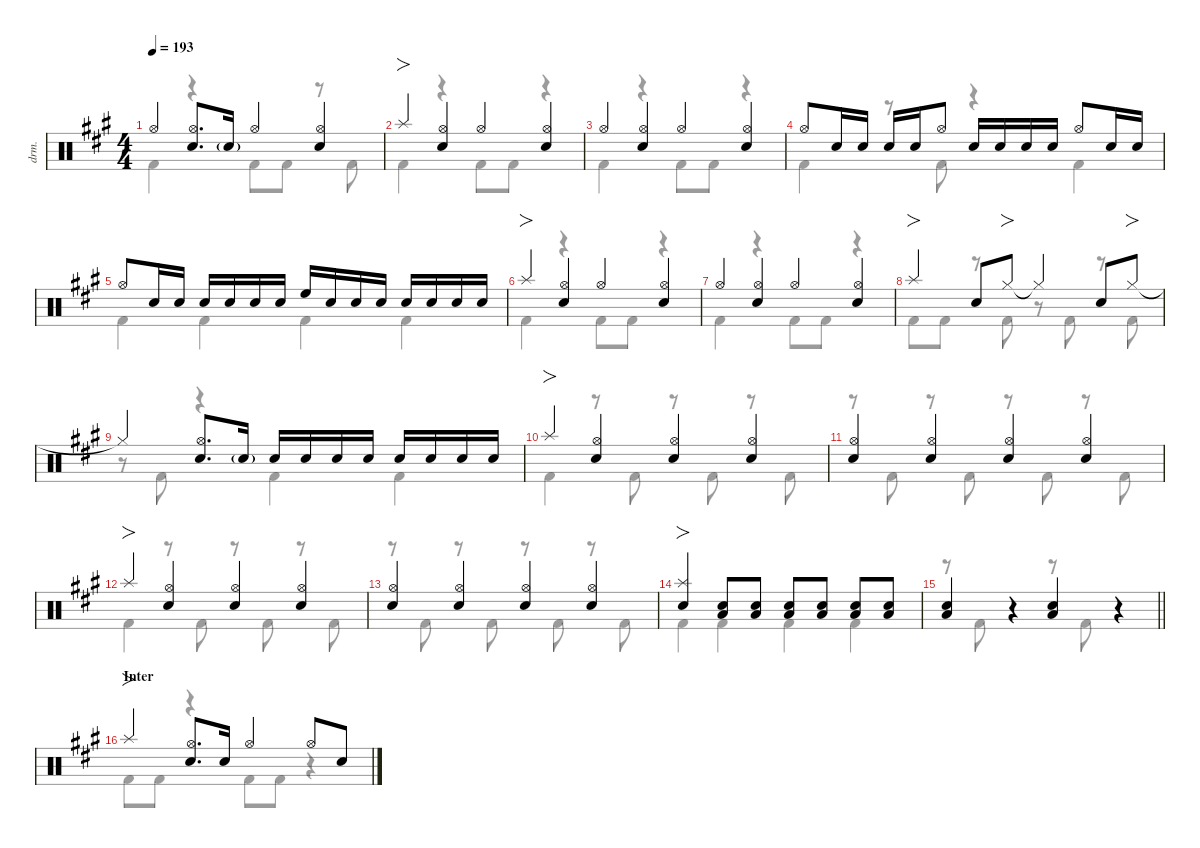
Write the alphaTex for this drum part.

\defaultSystemsLayout 4
\hideDynamics
\bracketExtendMode nobrackets
\otherSystemsTrackNameOrientation horizontal
\track ("伊地知虹夏" "drm.") {instrument percussion}
\staff {score}
\articulation defaults
\voice
\ts (4 4)
\tempo 193
\clef neutral
\ks a "Hi-Hat (open)"{acc forcenatural}.4{dy mf beam Up}
("Hi-Hat (open)"{acc forcenatural} "Snare (hit) 2"{acc forcenatural}).8{d beam Up} "Snare (hit) 2"{g acc forcenatural}.16{beam Up} "Hi-Hat (open)"{acc forcenatural}.4{beam Up} ("Snare (hit) 2"{acc forcenatural} "Hi-Hat (open)"{acc forcenatural}).4{beam Up} |
"Splash (hit)"{acc forcenatural}.4{fo beam Up} ("Hi-Hat (open)"{acc forcenatural} "Snare (hit) 2"{acc forcenatural}).4{beam Up} "Hi-Hat (open)"{acc forcenatural}.4{beam Up} ("Hi-Hat (open)"{acc forcenatural} "Snare (hit) 2"{acc forcenatural}).4{beam Up} |
"Hi-Hat (open)"{acc forcenatural}.4{beam Up} ("Hi-Hat (open)"{acc forcenatural} "Snare (hit) 2"{acc forcenatural}).4{beam Up} "Hi-Hat (open)"{acc forcenatural}.4{beam Up} ("Hi-Hat (open)"{acc forcenatural} "Snare (hit) 2"{acc forcenatural}).4{beam Up} |
"Hi-Hat (open)"{acc forcenatural}.8{beam Up} "Snare (hit) 2"{acc forcenatural}.16{beam Up} "Snare (hit) 2"{acc forcenatural}.16{beam Up} "Snare (hit) 2"{acc forcenatural}.16{beam Up} "Snare (hit) 2"{acc forcenatural}.16{beam Up} "Hi-Hat (open)"{acc forcenatural}.8{beam Up} "Snare (hit) 2"{acc forcenatural}.16{beam Up} "Snare (hit) 2"{acc forcenatural}.16{beam Up} "Snare (hit) 2"{acc forcenatural}.16{beam Up} "Snare (hit) 2"{acc forcenatural}.16{beam Up} "Hi-Hat (open)"{acc forcenatural}.8{beam Up} "Snare (hit) 2"{acc forcenatural}.16{beam Up} "Snare (hit) 2"{acc forcenatural}.16{beam Up} |
"Hi-Hat (open)"{acc forcenatural}.8{beam Up} "Snare (hit) 2"{acc forcenatural}.16{beam Up} "Snare (hit) 2"{acc forcenatural}.16{beam Up} "Snare (hit) 2"{acc forcenatural}.16{beam Up} "Snare (hit) 2"{acc forcenatural}.16{beam Up} "Snare (hit) 2"{acc forcenatural}.16{beam Up} "Snare (hit) 2"{acc forcenatural}.16{beam Up} "High Floor Tom (hit)"{acc forcenatural}.16{beam Up} "Snare (hit) 2"{acc forcenatural}.16{beam Up} "Snare (hit) 2"{acc forcenatural}.16{beam Up} "Snare (hit) 2"{acc forcenatural}.16{beam Up} "Snare (hit) 2"{acc forcenatural}.16{beam Up} "Snare (hit) 2"{acc forcenatural}.16{beam Up} "Snare (hit) 2"{acc forcenatural}.16{beam Up} "Snare (hit) 2"{acc forcenatural}.16{beam Up} |
"Splash (hit)"{acc forcenatural}.4{fo beam Up} ("Hi-Hat (open)"{acc forcenatural} "Snare (hit) 2"{acc forcenatural}).4{beam Up} "Hi-Hat (open)"{acc forcenatural}.4{beam Up} ("Hi-Hat (open)"{acc forcenatural} "Snare (hit) 2"{acc forcenatural}).4{beam Up} |
"Hi-Hat (open)"{acc forcenatural}.4{beam Up} ("Hi-Hat (open)"{acc forcenatural} "Snare (hit) 2"{acc forcenatural}).4{beam Up} "Hi-Hat (open)"{acc forcenatural}.4{beam Up} ("Hi-Hat (open)"{acc forcenatural} "Snare (hit) 2"{acc forcenatural}).4{beam Up} |
"Splash (hit)"{acc forcenatural}.4{fo beam Up} "Snare (hit) 2"{acc forcenatural}.8{beam Up} "Hi-Hat (closed)"{acc forcenatural}.8{fo beam Up} "Hi-Hat (closed)"{t acc forcenatural}.4{beam Up} "Snare (hit) 2"{acc forcenatural}.8{beam Up} "Hi-Hat (closed)"{acc forcenatural}.8{fo beam Up} |
"Hi-Hat (closed)"{t acc forcenatural}.4{beam Up} ("Hi-Hat (open)"{acc forcenatural} "Snare (hit) 2"{acc forcenatural}).8{d beam Up} "Snare (hit) 2"{g acc forcenatural}.16{beam Up} "Snare (hit) 2"{acc forcenatural}.16{beam Up} "Snare (hit) 2"{acc forcenatural}.16{beam Up} "Snare (hit) 2"{acc forcenatural}.16{beam Up} "Snare (hit) 2"{acc forcenatural}.16{beam Up} "Snare (hit) 2"{acc forcenatural}.16{beam Up} "Snare (hit) 2"{acc forcenatural}.16{beam Up} "Snare (hit) 2"{acc forcenatural}.16{beam Up} "Snare (hit) 2"{acc forcenatural}.16{beam Up} |
"Splash (hit)"{acc forcenatural}.4{fo beam Up} ("Hi-Hat (open)"{acc forcenatural} "Snare (hit) 2"{acc forcenatural}).4{beam Up} ("Hi-Hat (open)"{acc forcenatural} "Snare (hit) 2"{acc forcenatural}).4{beam Up} ("Hi-Hat (open)"{acc forcenatural} "Snare (hit) 2"{acc forcenatural}).4{beam Up} |
("Hi-Hat (open)"{acc forcenatural} "Snare (hit) 2"{acc forcenatural}).4{beam Up} ("Hi-Hat (open)"{acc forcenatural} "Snare (hit) 2"{acc forcenatural}).4{beam Up} ("Hi-Hat (open)"{acc forcenatural} "Snare (hit) 2"{acc forcenatural}).4{beam Up} ("Hi-Hat (open)"{acc forcenatural} "Snare (hit) 2"{acc forcenatural}).4{beam Up} |
"Splash (hit)"{acc forcenatural}.4{fo beam Up} ("Hi-Hat (open)"{acc forcenatural} "Snare (hit) 2"{acc forcenatural}).4{beam Up} ("Hi-Hat (open)"{acc forcenatural} "Snare (hit) 2"{acc forcenatural}).4{beam Up} ("Hi-Hat (open)"{acc forcenatural} "Snare (hit) 2"{acc forcenatural}).4{beam Up} |
("Hi-Hat (open)"{acc forcenatural} "Snare (hit) 2"{acc forcenatural}).4{beam Up} ("Hi-Hat (open)"{acc forcenatural} "Snare (hit) 2"{acc forcenatural}).4{beam Up} ("Hi-Hat (open)"{acc forcenatural} "Snare (hit) 2"{acc forcenatural}).4{beam Up} ("Hi-Hat (open)"{acc forcenatural} "Snare (hit) 2"{acc forcenatural}).4{beam Up} |
("Splash (hit)"{acc forcenatural} "Snare (hit) 2"{acc forcenatural}).4{fo beam Up} ("Snare (hit) 2"{acc forcenatural} "Low Tom (hit)"{acc forcenatural}).8{beam Up} ("Snare (hit) 2"{acc forcenatural} "Low Tom (hit)"{acc forcenatural}).8{beam Up} ("Low Tom (hit)"{acc forcenatural} "Snare (hit) 2"{acc forcenatural}).8{beam Up} ("Low Tom (hit)"{acc forcenatural} "Snare (hit) 2"{acc forcenatural}).8{beam Up} ("Low Tom (hit)"{acc forcenatural} "Snare (hit) 2"{acc forcenatural}).8{beam Up} ("Low Tom (hit)"{acc forcenatural} "Snare (hit) 2"{acc forcenatural}).8{beam Up} |
\barLineRight lightlight
("Snare (hit) 2"{acc forcenatural} "Low Tom (hit)"{acc forcenatural}).4{beam Up} r.4{beam Up} ("Low Tom (hit)"{acc forcenatural} "Snare (hit) 2"{acc forcenatural}).4{beam Up} r.4{beam Up} |
\section ("" "Inter")
"Splash (hit)"{acc forcenatural}.4{fo beam Up} ("Hi-Hat (open)"{acc forcenatural} "Snare (hit) 2"{acc forcenatural}).8{d beam Up} "Snare (hit) 2"{acc forcenatural}.16{beam Up} "Hi-Hat (open)"{acc forcenatural}.4{beam Up} "Hi-Hat (open)"{acc forcenatural}.8{beam Up} "Snare (hit) 2"{acc forcenatural}.8{beam Up}
\voice
\clef neutral
\ottava regular
\simile none
\ks a "Kick (hit) 2"{acc forcenatural}.4{dy mf beam Down}
r.4{beam Down} "Kick (hit) 2"{acc forcenatural}.8{beam Down} "Kick (hit) 2"{acc forcenatural}.8{beam Down} r.8{beam Down} "Kick (hit) 2"{acc forcenatural}.8{beam Down} |
"Kick (hit) 2"{acc forcenatural}.4{beam Down} r.4{beam Down} "Kick (hit) 2"{acc forcenatural}.8{beam Down} "Kick (hit) 2"{acc forcenatural}.8{beam Down} r.4{beam Down} |
"Kick (hit) 2"{acc forcenatural}.4{beam Down} r.4{beam Down} "Kick (hit) 2"{acc forcenatural}.8{beam Down} "Kick (hit) 2"{acc forcenatural}.8{beam Down} r.4{beam Down} |
"Kick (hit) 2"{acc forcenatural}.4{beam Down} r.8{beam Down} "Kick (hit) 2"{acc forcenatural}.8{beam Down} r.4{beam Down} "Kick (hit) 2"{acc forcenatural}.4{beam Down} |
"Kick (hit) 2"{acc forcenatural}.4{beam Down} "Kick (hit) 2"{acc forcenatural}.4{beam Down} "Kick (hit) 2"{acc forcenatural}.4{beam Down} "Kick (hit) 2"{acc forcenatural}.4{beam Down} |
"Kick (hit) 2"{acc forcenatural}.4{beam Down} r.4{beam Down} "Kick (hit) 2"{acc forcenatural}.8{beam Down} "Kick (hit) 2"{acc forcenatural}.8{beam Down} r.4{beam Down} |
"Kick (hit) 2"{acc forcenatural}.4{beam Down} r.4{beam Down} "Kick (hit) 2"{acc forcenatural}.8{beam Down} "Kick (hit) 2"{acc forcenatural}.8{beam Down} r.4{beam Down} |
"Kick (hit) 2"{acc forcenatural}.8{beam Down} "Kick (hit) 2"{acc forcenatural}.8{beam Down} r.8{beam Down} "Kick (hit) 2"{acc forcenatural}.8{beam Down} r.8{beam Down} "Kick (hit) 2"{acc forcenatural}.8{beam Down} r.8{beam Down} "Kick (hit) 2"{acc forcenatural}.8{beam Down} |
r.8{beam Down} "Kick (hit) 2"{acc forcenatural}.8{beam Down} r.4{beam Down} "Kick (hit) 2"{acc forcenatural}.4{beam Down} "Kick (hit) 2"{acc forcenatural}.4{beam Down} |
"Kick (hit) 2"{acc forcenatural}.4{beam Down} r.8{beam Down} "Kick (hit) 2"{acc forcenatural}.8{beam Down} r.8{beam Down} "Kick (hit) 2"{acc forcenatural}.8{beam Down} r.8{beam Down} "Kick (hit) 2"{acc forcenatural}.8{beam Down} |
r.8{beam Down} "Kick (hit) 2"{acc forcenatural}.8{beam Down} r.8{beam Down} "Kick (hit) 2"{acc forcenatural}.8{beam Down} r.8{beam Down} "Kick (hit) 2"{acc forcenatural}.8{beam Down} r.8{beam Down} "Kick (hit) 2"{acc forcenatural}.8{beam Down} |
"Kick (hit) 2"{acc forcenatural}.4{beam Down} r.8{beam Down} "Kick (hit) 2"{acc forcenatural}.8{beam Down} r.8{beam Down} "Kick (hit) 2"{acc forcenatural}.8{beam Down} r.8{beam Down} "Kick (hit) 2"{acc forcenatural}.8{beam Down} |
r.8{beam Down} "Kick (hit) 2"{acc forcenatural}.8{beam Down} r.8{beam Down} "Kick (hit) 2"{acc forcenatural}.8{beam Down} r.8{beam Down} "Kick (hit) 2"{acc forcenatural}.8{beam Down} r.8{beam Down} "Kick (hit) 2"{acc forcenatural}.8{beam Down} |
"Kick (hit) 2"{acc forcenatural}.4{beam Down} "Kick (hit) 2"{acc forcenatural}.4{beam Down} "Kick (hit) 2"{acc forcenatural}.4{beam Down} "Kick (hit) 2"{acc forcenatural}.4{beam Down} |
\barLineRight lightlight
r.8{beam Down} "Kick (hit) 2"{acc forcenatural}.8{beam Down} r.4{beam Down} r.8{beam Down} "Kick (hit) 2"{acc forcenatural}.8{beam Down} r.4{beam Down} |
"Kick (hit) 2"{acc forcenatural}.8{beam Down} "Kick (hit) 2"{acc forcenatural}.8{beam Down} r.4{beam Down} "Kick (hit) 2"{acc forcenatural}.8{beam Down} "Kick (hit) 2"{acc forcenatural}.8{beam Down} r.4{beam Down}
